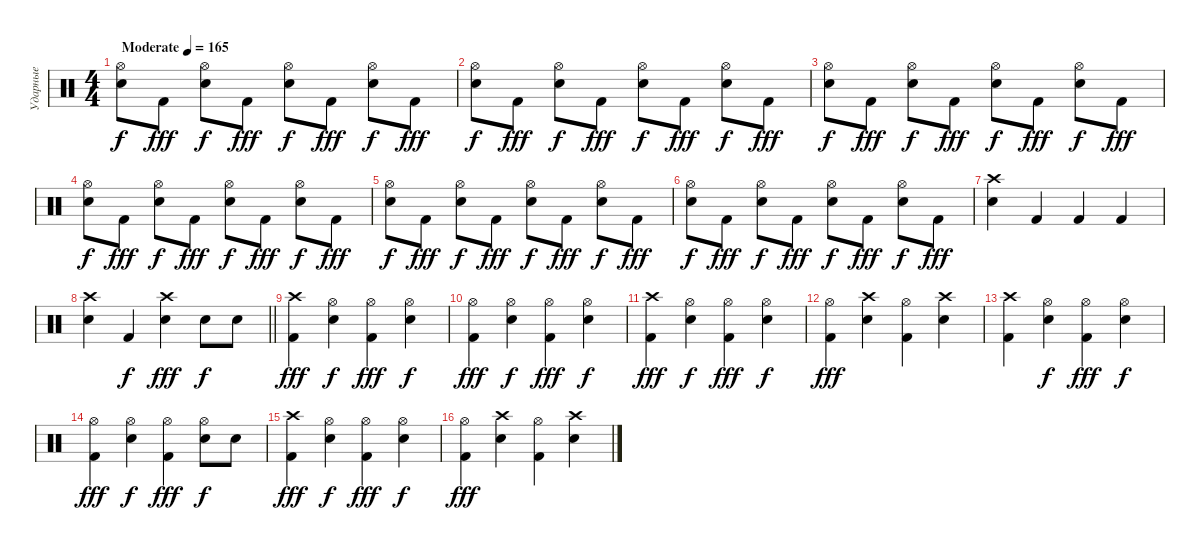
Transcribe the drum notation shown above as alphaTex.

\track ("Ударные" "Ударные") {instrument percussion}
\staff {score}
\articulation defaults
\ts (4 4)
\tempo (165 "Moderate")
\clef neutral
\ks c
("Snare (hit) 2" "Hi-Hat (open)").8{dy f} "Kick (hit) 2".8{dy fff} ("Snare (hit) 2" "Hi-Hat (open)").8{dy f} "Kick (hit) 2".8{dy fff} ("Snare (hit) 2" "Hi-Hat (open)").8{dy f} "Kick (hit) 2".8{dy fff} ("Snare (hit) 2" "Hi-Hat (open)").8{dy f} "Kick (hit) 2".8{dy fff} |
("Snare (hit) 2" "Hi-Hat (open)").8{dy f} "Kick (hit) 2".8{dy fff} ("Snare (hit) 2" "Hi-Hat (open)").8{dy f} "Kick (hit) 2".8{dy fff} ("Snare (hit) 2" "Hi-Hat (open)").8{dy f} "Kick (hit) 2".8{dy fff} ("Snare (hit) 2" "Hi-Hat (open)").8{dy f} "Kick (hit) 2".8{dy fff} |
("Snare (hit) 2" "Hi-Hat (open)").8{dy f} "Kick (hit) 2".8{dy fff} ("Snare (hit) 2" "Hi-Hat (open)").8{dy f} "Kick (hit) 2".8{dy fff} ("Snare (hit) 2" "Hi-Hat (open)").8{dy f} "Kick (hit) 2".8{dy fff} ("Snare (hit) 2" "Hi-Hat (open)").8{dy f} "Kick (hit) 2".8{dy fff} |
("Snare (hit) 2" "Hi-Hat (open)").8{dy f} "Kick (hit) 2".8{dy fff} ("Snare (hit) 2" "Hi-Hat (open)").8{dy f} "Kick (hit) 2".8{dy fff} ("Snare (hit) 2" "Hi-Hat (open)").8{dy f} "Kick (hit) 2".8{dy fff} ("Snare (hit) 2" "Hi-Hat (open)").8{dy f} "Kick (hit) 2".8{dy fff} |
("Snare (hit) 2" "Hi-Hat (open)").8{dy f} "Kick (hit) 2".8{dy fff} ("Snare (hit) 2" "Hi-Hat (open)").8{dy f} "Kick (hit) 2".8{dy fff} ("Snare (hit) 2" "Hi-Hat (open)").8{dy f} "Kick (hit) 2".8{dy fff} ("Snare (hit) 2" "Hi-Hat (open)").8{dy f} "Kick (hit) 2".8{dy fff} |
("Snare (hit) 2" "Hi-Hat (open)").8{dy f} "Kick (hit) 2".8{dy fff} ("Snare (hit) 2" "Hi-Hat (open)").8{dy f} "Kick (hit) 2".8{dy fff} ("Snare (hit) 2" "Hi-Hat (open)").8{dy f} "Kick (hit) 2".8{dy fff} ("Snare (hit) 2" "Hi-Hat (open)").8{dy f} "Kick (hit) 2".8{dy fff} |
("Snare (hit) 2" "Crash high (hit)").4 "Kick (hit) 2".4 "Kick (hit) 2".4 "Kick (hit) 2".4 |
\barLineRight lightlight
("Snare (hit) 2" "Crash high (hit)").4 "Kick (hit) 2".4{dy f} ("Snare (hit) 2" "Crash high (hit)").4{dy fff} "Snare (hit) 2".8{dy f} "Snare (hit) 2".8 |
("Kick (hit) 2" "Crash high (hit)").4{dy fff} ("Snare (hit) 2" "Hi-Hat (open)").4{dy f} ("Kick (hit) 2" "Hi-Hat (open)").4{dy fff} ("Snare (hit) 2" "Hi-Hat (open)").4{dy f} |
("Kick (hit) 2" "Hi-Hat (open)").4{dy fff} ("Snare (hit) 2" "Hi-Hat (open)").4{dy f} ("Kick (hit) 2" "Hi-Hat (open)").4{dy fff} ("Snare (hit) 2" "Hi-Hat (open)").4{dy f} |
("Kick (hit) 2" "Crash high (hit)").4{dy fff} ("Snare (hit) 2" "Hi-Hat (open)").4{dy f} ("Kick (hit) 2" "Hi-Hat (open)").4{dy fff} ("Snare (hit) 2" "Hi-Hat (open)").4{dy f} |
("Kick (hit) 2" "Hi-Hat (open)").4{dy fff} ("Snare (hit) 2" "Crash high (hit)").4 ("Kick (hit) 2" "Hi-Hat (open)").4 ("Snare (hit) 2" "Crash high (hit)").4 |
("Kick (hit) 2" "Crash high (hit)").4 ("Snare (hit) 2" "Hi-Hat (open)").4{dy f} ("Kick (hit) 2" "Hi-Hat (open)").4{dy fff} ("Snare (hit) 2" "Hi-Hat (open)").4{dy f} |
("Kick (hit) 2" "Hi-Hat (open)").4{dy fff} ("Snare (hit) 2" "Hi-Hat (open)").4{dy f} ("Kick (hit) 2" "Hi-Hat (open)").4{dy fff} ("Snare (hit) 2" "Hi-Hat (open)").8{dy f} "Snare (hit) 2".8 |
("Kick (hit) 2" "Crash high (hit)").4{dy fff} ("Snare (hit) 2" "Hi-Hat (open)").4{dy f} ("Kick (hit) 2" "Hi-Hat (open)").4{dy fff} ("Snare (hit) 2" "Hi-Hat (open)").4{dy f} |
("Kick (hit) 2" "Hi-Hat (open)").4{dy fff} ("Snare (hit) 2" "Crash high (hit)").4 ("Kick (hit) 2" "Hi-Hat (open)").4 ("Snare (hit) 2" "Crash high (hit)").4
